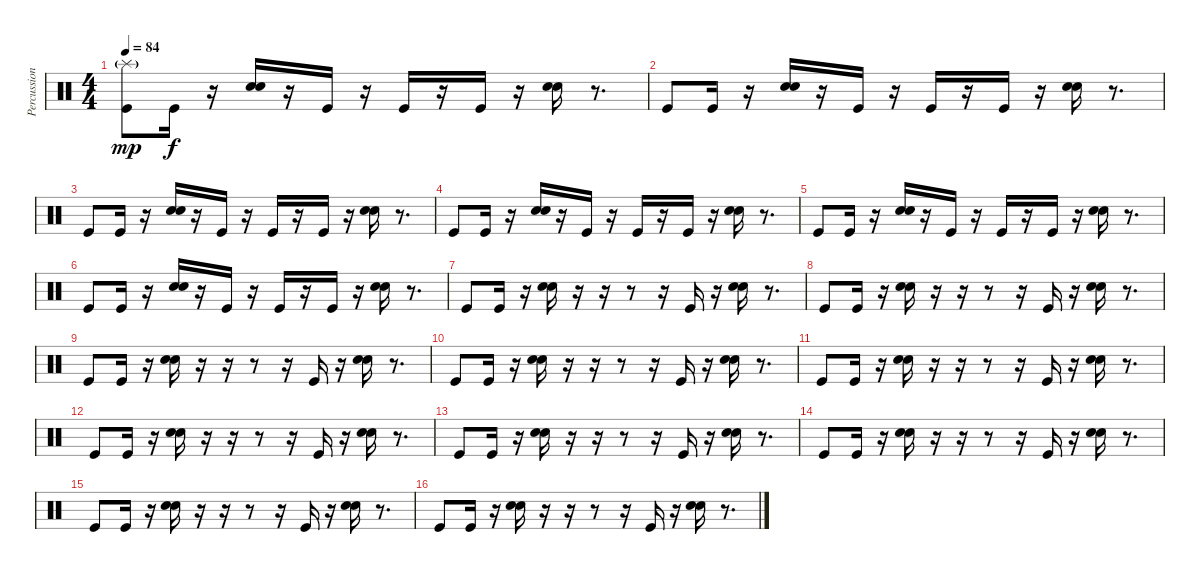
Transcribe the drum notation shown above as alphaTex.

\track ("Percussions" "Percussion") {instrument percussion}
\staff {score}
\articulation defaults
\ts (4 4)
\tempo 84
\clef neutral
\ks c
("Splash (hit)"{g} "Kick (hit)").8{dy mp} "Kick (hit)".16{dy f} r.16 ("Electric Snare (hit)" "Electric Snare (hit)").16{bd 240} r.16 "Kick (hit)".16 r.16 "Kick (hit)".16 r.16 "Kick (hit)".16 r.16 ("Electric Snare (hit)" "Electric Snare (hit)").16{bd 240} r.8{d} |
"Kick (hit)".8 "Kick (hit)".16 r.16 ("Electric Snare (hit)" "Electric Snare (hit)").16{bd 240} r.16 "Kick (hit)".16 r.16 "Kick (hit)".16 r.16 "Kick (hit)".16 r.16 ("Electric Snare (hit)" "Electric Snare (hit)").16{bd 240} r.8{d} |
"Kick (hit)".8 "Kick (hit)".16 r.16 ("Electric Snare (hit)" "Electric Snare (hit)").16{bd 240} r.16 "Kick (hit)".16 r.16 "Kick (hit)".16 r.16 "Kick (hit)".16 r.16 ("Electric Snare (hit)" "Electric Snare (hit)").16{bd 240} r.8{d} |
"Kick (hit)".8 "Kick (hit)".16 r.16 ("Electric Snare (hit)" "Electric Snare (hit)").16{bd 240} r.16 "Kick (hit)".16 r.16 "Kick (hit)".16 r.16 "Kick (hit)".16 r.16 ("Electric Snare (hit)" "Electric Snare (hit)").16{bd 240} r.8{d} |
"Kick (hit)".8 "Kick (hit)".16 r.16 ("Electric Snare (hit)" "Electric Snare (hit)").16{bd 240} r.16 "Kick (hit)".16 r.16 "Kick (hit)".16 r.16 "Kick (hit)".16 r.16 ("Electric Snare (hit)" "Electric Snare (hit)").16{bd 240} r.8{d} |
"Kick (hit)".8 "Kick (hit)".16 r.16 ("Electric Snare (hit)" "Electric Snare (hit)").16{bd 240} r.16 "Kick (hit)".16 r.16 "Kick (hit)".16 r.16 "Kick (hit)".16 r.16 ("Electric Snare (hit)" "Electric Snare (hit)").16{bd 240} r.8{d} |
"Kick (hit)".8 "Kick (hit)".16 r.16 ("Electric Snare (hit)" "Electric Snare (hit)").16{bd 240} r.16 r.16 r.8 r.16 "Kick (hit)".16 r.16 ("Electric Snare (hit)" "Electric Snare (hit)").16{bd 240} r.8{d} |
"Kick (hit)".8 "Kick (hit)".16 r.16 ("Electric Snare (hit)" "Electric Snare (hit)").16{bd 240} r.16 r.16 r.8 r.16 "Kick (hit)".16 r.16 ("Electric Snare (hit)" "Electric Snare (hit)").16{bd 240} r.8{d} |
"Kick (hit)".8 "Kick (hit)".16 r.16 ("Electric Snare (hit)" "Electric Snare (hit)").16{bd 240} r.16 r.16 r.8 r.16 "Kick (hit)".16 r.16 ("Electric Snare (hit)" "Electric Snare (hit)").16{bd 240} r.8{d} |
"Kick (hit)".8 "Kick (hit)".16 r.16 ("Electric Snare (hit)" "Electric Snare (hit)").16{bd 240} r.16 r.16 r.8 r.16 "Kick (hit)".16 r.16 ("Electric Snare (hit)" "Electric Snare (hit)").16{bd 240} r.8{d} |
"Kick (hit)".8 "Kick (hit)".16 r.16 ("Electric Snare (hit)" "Electric Snare (hit)").16{bd 240} r.16 r.16 r.8 r.16 "Kick (hit)".16 r.16 ("Electric Snare (hit)" "Electric Snare (hit)").16{bd 240} r.8{d} |
"Kick (hit)".8 "Kick (hit)".16 r.16 ("Electric Snare (hit)" "Electric Snare (hit)").16{bd 240} r.16 r.16 r.8 r.16 "Kick (hit)".16 r.16 ("Electric Snare (hit)" "Electric Snare (hit)").16{bd 240} r.8{d} |
"Kick (hit)".8 "Kick (hit)".16 r.16 ("Electric Snare (hit)" "Electric Snare (hit)").16{bd 240} r.16 r.16 r.8 r.16 "Kick (hit)".16 r.16 ("Electric Snare (hit)" "Electric Snare (hit)").16{bd 240} r.8{d} |
"Kick (hit)".8 "Kick (hit)".16 r.16 ("Electric Snare (hit)" "Electric Snare (hit)").16{bd 240} r.16 r.16 r.8 r.16 "Kick (hit)".16 r.16 ("Electric Snare (hit)" "Electric Snare (hit)").16{bd 240} r.8{d} |
"Kick (hit)".8 "Kick (hit)".16 r.16 ("Electric Snare (hit)" "Electric Snare (hit)").16{bd 240} r.16 r.16 r.8 r.16 "Kick (hit)".16 r.16 ("Electric Snare (hit)" "Electric Snare (hit)").16{bd 240} r.8{d} |
"Kick (hit)".8 "Kick (hit)".16 r.16 ("Electric Snare (hit)" "Electric Snare (hit)").16{bd 240} r.16 r.16 r.8 r.16 "Kick (hit)".16 r.16 ("Electric Snare (hit)" "Electric Snare (hit)").16{bd 240} r.8{d}
